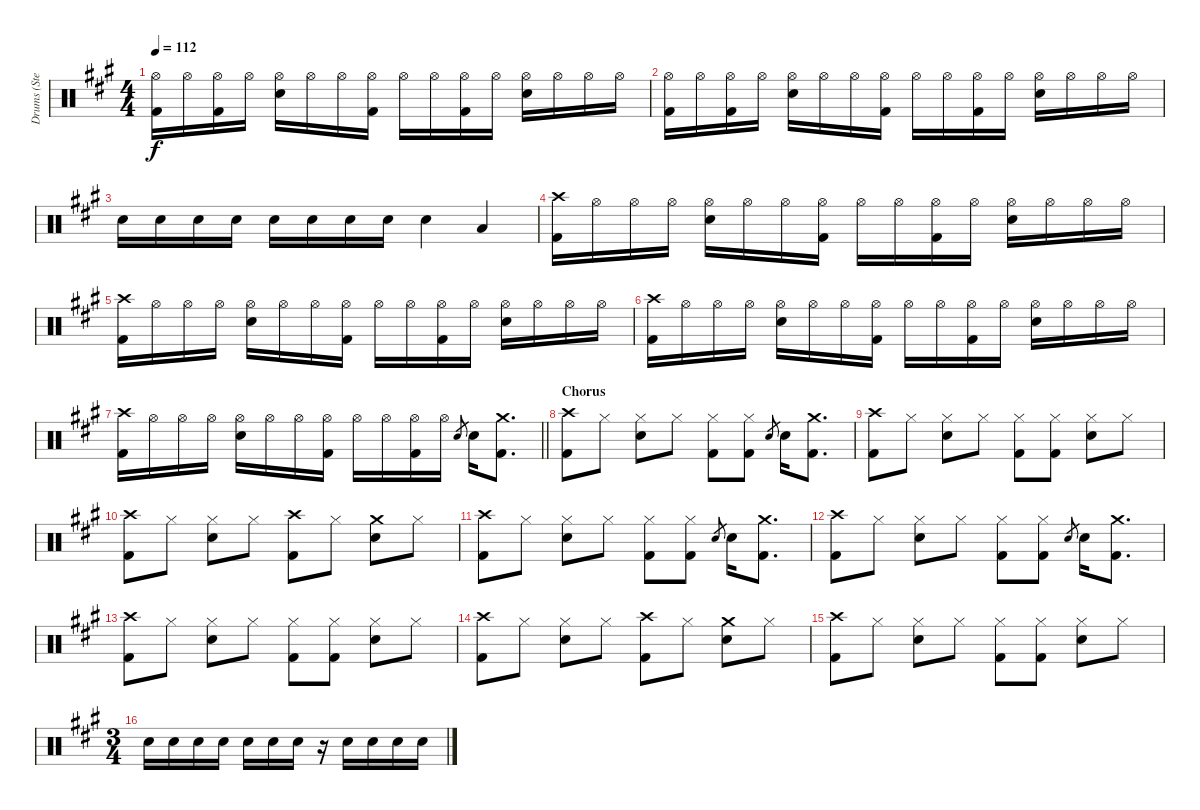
\track ("Drums (Steven)" "Drums (Ste") {instrument percussion}
\staff {score}
\articulation defaults
\ts (4 4)
\tempo 112
\clef neutral
\ks f#minor
("Hi-Hat (open)" "Kick (hit) 2").16{dy f} "Hi-Hat (open)".16 ("Hi-Hat (open)" "Kick (hit) 2").16 "Hi-Hat (open)".16 ("Hi-Hat (open)" "Snare (hit) 2").16 "Hi-Hat (open)".16 "Hi-Hat (open)".16 ("Hi-Hat (open)" "Kick (hit) 2").16 "Hi-Hat (open)".16 "Hi-Hat (open)".16 ("Hi-Hat (open)" "Kick (hit) 2").16 "Hi-Hat (open)".16 ("Hi-Hat (open)" "Snare (hit) 2").16 "Hi-Hat (open)".16 "Hi-Hat (open)".16 "Hi-Hat (open)".16 |
("Hi-Hat (open)" "Kick (hit) 2").16 "Hi-Hat (open)".16 ("Hi-Hat (open)" "Kick (hit) 2").16 "Hi-Hat (open)".16 ("Hi-Hat (open)" "Snare (hit) 2").16 "Hi-Hat (open)".16 "Hi-Hat (open)".16 ("Hi-Hat (open)" "Kick (hit) 2").16 "Hi-Hat (open)".16 "Hi-Hat (open)".16 ("Hi-Hat (open)" "Kick (hit) 2").16 "Hi-Hat (open)".16 ("Hi-Hat (open)" "Snare (hit) 2").16 "Hi-Hat (open)".16 "Hi-Hat (open)".16 "Hi-Hat (open)".16 |
"Snare (hit) 2".16 "Snare (hit) 2".16 "Snare (hit) 2".16 "Snare (hit) 2".16 "Snare (hit) 2".16 "Snare (hit) 2".16 "Snare (hit) 2".16 "Snare (hit) 2".16 "Snare (hit) 2".4 "Low Tom (hit)".4 |
("Crash high (hit)" "Kick (hit) 2").16 "Hi-Hat (open)".16 "Hi-Hat (open)".16 "Hi-Hat (open)".16 ("Hi-Hat (open)" "Snare (hit) 2").16 "Hi-Hat (open)".16 "Hi-Hat (open)".16 ("Hi-Hat (open)" "Kick (hit) 2").16 "Hi-Hat (open)".16 "Hi-Hat (open)".16 ("Hi-Hat (open)" "Kick (hit) 2").16 "Hi-Hat (open)".16 ("Hi-Hat (open)" "Snare (hit) 2").16 "Hi-Hat (open)".16 "Hi-Hat (open)".16 "Hi-Hat (open)".16 |
("Crash high (hit)" "Kick (hit) 2").16 "Hi-Hat (open)".16 "Hi-Hat (open)".16 "Hi-Hat (open)".16 ("Hi-Hat (open)" "Snare (hit) 2").16 "Hi-Hat (open)".16 "Hi-Hat (open)".16 ("Hi-Hat (open)" "Kick (hit) 2").16 "Hi-Hat (open)".16 "Hi-Hat (open)".16 ("Hi-Hat (open)" "Kick (hit) 2").16 "Hi-Hat (open)".16 ("Hi-Hat (open)" "Snare (hit) 2").16 "Hi-Hat (open)".16 "Hi-Hat (open)".16 "Hi-Hat (open)".16 |
("Crash high (hit)" "Kick (hit) 2").16 "Hi-Hat (open)".16 "Hi-Hat (open)".16 "Hi-Hat (open)".16 ("Hi-Hat (open)" "Snare (hit) 2").16 "Hi-Hat (open)".16 "Hi-Hat (open)".16 ("Hi-Hat (open)" "Kick (hit) 2").16 "Hi-Hat (open)".16 "Hi-Hat (open)".16 ("Hi-Hat (open)" "Kick (hit) 2").16 "Hi-Hat (open)".16 ("Hi-Hat (open)" "Snare (hit) 2").16 "Hi-Hat (open)".16 "Hi-Hat (open)".16 "Hi-Hat (open)".16 |
\barLineRight lightlight
("Crash high (hit)" "Kick (hit) 2").16 "Hi-Hat (open)".16 "Hi-Hat (open)".16 "Hi-Hat (open)".16 ("Hi-Hat (open)" "Snare (hit) 2").16 "Hi-Hat (open)".16 "Hi-Hat (open)".16 ("Hi-Hat (open)" "Kick (hit) 2").16 "Hi-Hat (open)".16 "Hi-Hat (open)".16 ("Hi-Hat (open)" "Kick (hit) 2").16 "Hi-Hat (open)".16 "Snare (hit) 2".8{gr} "Snare (hit) 2".16 ("Crash medium (hit)" "Kick (hit) 2").8{d} |
\section ("" "Chorus")
("Crash high (hit)" "Kick (hit) 2").8 "Hi-Hat (closed)".8 ("Hi-Hat (closed)" "Snare (hit) 2").8 "Hi-Hat (closed)".8 ("Hi-Hat (closed)" "Kick (hit) 2").8 ("Hi-Hat (closed)" "Kick (hit) 2").8 "Snare (hit) 2".8{gr} "Snare (hit) 2".16 ("Crash medium (hit)" "Kick (hit) 2").8{d} |
("Crash high (hit)" "Kick (hit) 2").8 "Hi-Hat (closed)".8 ("Hi-Hat (closed)" "Snare (hit) 2").8 "Hi-Hat (closed)".8 ("Hi-Hat (closed)" "Kick (hit) 2").8 ("Hi-Hat (closed)" "Kick (hit) 2").8 ("Hi-Hat (closed)" "Snare (hit) 2").8 "Hi-Hat (closed)".8 |
("Crash high (hit)" "Kick (hit) 2").8 "Hi-Hat (closed)".8 ("Hi-Hat (closed)" "Snare (hit) 2").8 "Hi-Hat (closed)".8 ("Crash high (hit)" "Kick (hit) 2").8 "Hi-Hat (closed)".8 ("Crash medium (hit)" "Snare (hit) 2").8 "Hi-Hat (closed)".8 |
("Crash high (hit)" "Kick (hit) 2").8 "Hi-Hat (closed)".8 ("Hi-Hat (closed)" "Snare (hit) 2").8 "Hi-Hat (closed)".8 ("Hi-Hat (closed)" "Kick (hit) 2").8 ("Hi-Hat (closed)" "Kick (hit) 2").8 "Snare (hit) 2".8{gr} "Snare (hit) 2".16 ("Crash medium (hit)" "Kick (hit) 2").8{d} |
("Crash high (hit)" "Kick (hit) 2").8 "Hi-Hat (closed)".8 ("Hi-Hat (closed)" "Snare (hit) 2").8 "Hi-Hat (closed)".8 ("Hi-Hat (closed)" "Kick (hit) 2").8 ("Hi-Hat (closed)" "Kick (hit) 2").8 "Snare (hit) 2".8{gr} "Snare (hit) 2".16 ("Crash medium (hit)" "Kick (hit) 2").8{d} |
("Crash high (hit)" "Kick (hit) 2").8 "Hi-Hat (closed)".8 ("Hi-Hat (closed)" "Snare (hit) 2").8 "Hi-Hat (closed)".8 ("Hi-Hat (closed)" "Kick (hit) 2").8 ("Hi-Hat (closed)" "Kick (hit) 2").8 ("Hi-Hat (closed)" "Snare (hit) 2").8 "Hi-Hat (closed)".8 |
("Crash high (hit)" "Kick (hit) 2").8 "Hi-Hat (closed)".8 ("Hi-Hat (closed)" "Snare (hit) 2").8 "Hi-Hat (closed)".8 ("Crash high (hit)" "Kick (hit) 2").8 "Hi-Hat (closed)".8 ("Crash medium (hit)" "Snare (hit) 2").8 "Hi-Hat (closed)".8 |
("Crash high (hit)" "Kick (hit) 2").8 "Hi-Hat (closed)".8 ("Hi-Hat (closed)" "Snare (hit) 2").8 "Hi-Hat (closed)".8 ("Hi-Hat (closed)" "Kick (hit) 2").8 ("Hi-Hat (closed)" "Kick (hit) 2").8 ("Hi-Hat (closed)" "Snare (hit) 2").8 "Hi-Hat (closed)".8 |
\ts (3 4)
"Snare (hit) 2".16 "Snare (hit) 2".16 "Snare (hit) 2".16 "Snare (hit) 2".16 "Snare (hit) 2".16 "Snare (hit) 2".16 "Snare (hit) 2".16 r.16 "Snare (hit) 2".16 "Snare (hit) 2".16 "Snare (hit) 2".16 "Snare (hit) 2".16
